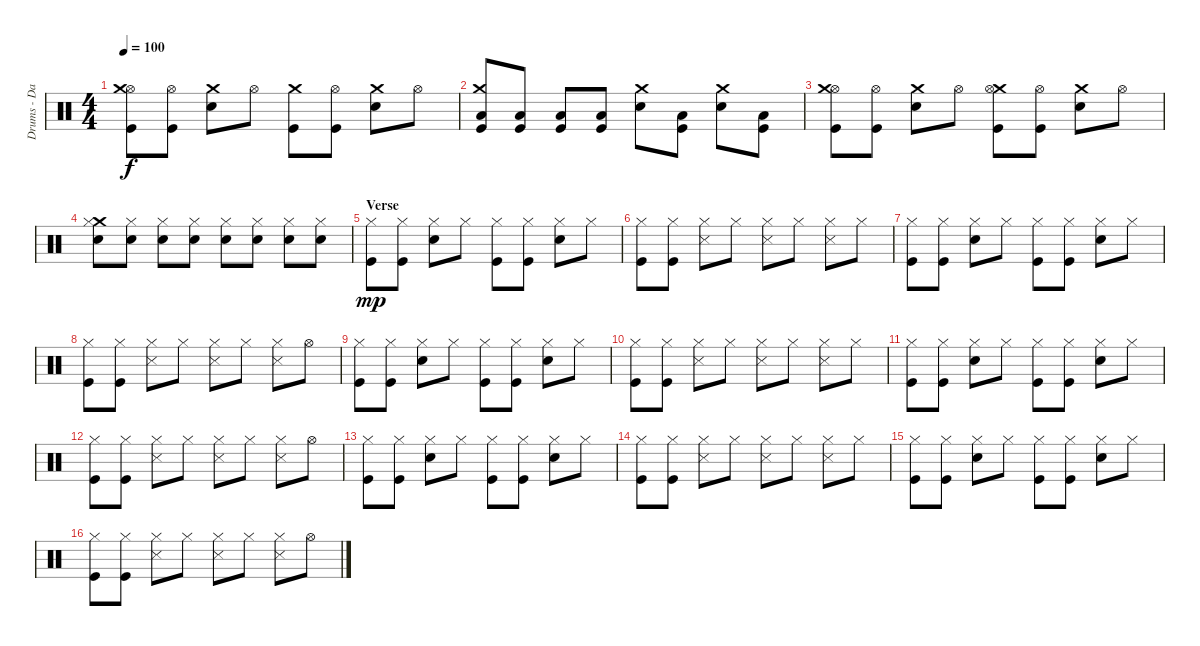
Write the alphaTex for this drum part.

\track ("Drums - Dave Grohl" "Drums - Da") {instrument percussion}
\staff {score}
\articulation defaults
\ts (4 4)
\tempo 100
\clef neutral
\ks c
("Kick (hit)" "Hi-Hat (open)" "Crash medium (hit)").8{dy f} ("Kick (hit)" "Hi-Hat (open)").8 ("Snare (hit) 2" "Crash medium (hit)").8 "Hi-Hat (open)".8 ("Kick (hit)" "Crash medium (hit)").8 ("Kick (hit)" "Hi-Hat (open)").8 ("Snare (hit) 2" "Crash medium (hit)").8 "Hi-Hat (open)".8 |
("Kick (hit)" "Low Tom (hit)" "Crash medium (hit)").8 ("Kick (hit)" "Low Tom (hit)").8 ("Kick (hit)" "Low Tom (hit)").8 ("Kick (hit)" "Low Tom (hit)").8 ("Snare (hit) 2" "Crash medium (hit)").8 ("Kick (hit)" "Low Tom (hit)").8 ("Snare (hit) 2" "Crash medium (hit)").8 ("Kick (hit)" "Low Tom (hit)").8 |
("Kick (hit)" "Hi-Hat (open)" "Crash medium (hit)").8 ("Kick (hit)" "Hi-Hat (open)").8 ("Snare (hit) 2" "Crash medium (hit)").8 "Hi-Hat (open)".8 ("Kick (hit)" "Crash medium (hit)" "Hi-Hat (open)").8 ("Kick (hit)" "Hi-Hat (open)").8 ("Snare (hit) 2" "Crash medium (hit)").8 "Hi-Hat (open)".8 |
("Snare (hit) 2" "Crash medium (hit)" "Hi-Hat (closed)").8 ("Snare (hit) 2" "Hi-Hat (closed)").8 ("Snare (hit) 2" "Hi-Hat (closed)").8 ("Snare (hit) 2" "Hi-Hat (closed)").8 ("Snare (hit) 2" "Hi-Hat (closed)").8 ("Snare (hit) 2" "Hi-Hat (closed)").8 ("Snare (hit) 2" "Hi-Hat (closed)").8 ("Snare (hit) 2" "Hi-Hat (closed)").8 |
\section ("" "Verse")
("Kick (hit)" "Hi-Hat (closed)").8{dy mp} ("Hi-Hat (closed)" "Kick (hit)").8 ("Hi-Hat (closed)" "Snare (hit) 2").8 "Hi-Hat (closed)".8 ("Kick (hit)" "Hi-Hat (closed)").8 ("Kick (hit)" "Hi-Hat (closed)").8 ("Snare (hit) 2" "Hi-Hat (closed)").8 "Hi-Hat (closed)".8 |
("Kick (hit)" "Hi-Hat (closed)").8 ("Kick (hit)" "Hi-Hat (closed)").8 ("Hi-Hat (closed)" "Snare (side stick) 3").8 "Hi-Hat (closed)".8 ("Hi-Hat (closed)" "Snare (side stick) 3").8 "Hi-Hat (closed)".8 ("Hi-Hat (closed)" "Snare (side stick) 3").8 "Hi-Hat (closed)".8 |
("Kick (hit)" "Hi-Hat (closed)").8 ("Hi-Hat (closed)" "Kick (hit)").8 ("Hi-Hat (closed)" "Snare (hit) 2").8 "Hi-Hat (closed)".8 ("Kick (hit)" "Hi-Hat (closed)").8 ("Kick (hit)" "Hi-Hat (closed)").8 ("Snare (hit) 2" "Hi-Hat (closed)").8 "Hi-Hat (closed)".8 |
("Kick (hit)" "Hi-Hat (closed)").8 ("Kick (hit)" "Hi-Hat (closed)").8 ("Hi-Hat (closed)" "Snare (side stick) 3").8 "Hi-Hat (closed)".8 ("Hi-Hat (closed)" "Snare (side stick) 3").8 "Hi-Hat (closed)".8 ("Hi-Hat (closed)" "Snare (side stick) 3").8 "Hi-Hat (open)".8 |
("Kick (hit)" "Hi-Hat (closed)").8 ("Hi-Hat (closed)" "Kick (hit)").8 ("Hi-Hat (closed)" "Snare (hit) 2").8 "Hi-Hat (closed)".8 ("Kick (hit)" "Hi-Hat (closed)").8 ("Kick (hit)" "Hi-Hat (closed)").8 ("Snare (hit) 2" "Hi-Hat (closed)").8 "Hi-Hat (closed)".8 |
("Kick (hit)" "Hi-Hat (closed)").8 ("Kick (hit)" "Hi-Hat (closed)").8 ("Hi-Hat (closed)" "Snare (side stick) 3").8 "Hi-Hat (closed)".8 ("Hi-Hat (closed)" "Snare (side stick) 3").8 "Hi-Hat (closed)".8 ("Hi-Hat (closed)" "Snare (side stick) 3").8 "Hi-Hat (closed)".8 |
("Kick (hit)" "Hi-Hat (closed)").8 ("Hi-Hat (closed)" "Kick (hit)").8 ("Hi-Hat (closed)" "Snare (hit) 2").8 "Hi-Hat (closed)".8 ("Kick (hit)" "Hi-Hat (closed)").8 ("Kick (hit)" "Hi-Hat (closed)").8 ("Snare (hit) 2" "Hi-Hat (closed)").8 "Hi-Hat (closed)".8 |
("Kick (hit)" "Hi-Hat (closed)").8 ("Kick (hit)" "Hi-Hat (closed)").8 ("Hi-Hat (closed)" "Snare (side stick) 3").8 "Hi-Hat (closed)".8 ("Hi-Hat (closed)" "Snare (side stick) 3").8 "Hi-Hat (closed)".8 ("Hi-Hat (closed)" "Snare (side stick) 3").8 "Hi-Hat (open)".8 |
("Kick (hit)" "Hi-Hat (closed)").8 ("Hi-Hat (closed)" "Kick (hit)").8 ("Hi-Hat (closed)" "Snare (hit) 2").8 "Hi-Hat (closed)".8 ("Kick (hit)" "Hi-Hat (closed)").8 ("Kick (hit)" "Hi-Hat (closed)").8 ("Snare (hit) 2" "Hi-Hat (closed)").8 "Hi-Hat (closed)".8 |
("Kick (hit)" "Hi-Hat (closed)").8 ("Kick (hit)" "Hi-Hat (closed)").8 ("Hi-Hat (closed)" "Snare (side stick) 3").8 "Hi-Hat (closed)".8 ("Hi-Hat (closed)" "Snare (side stick) 3").8 "Hi-Hat (closed)".8 ("Hi-Hat (closed)" "Snare (side stick) 3").8 "Hi-Hat (closed)".8 |
("Kick (hit)" "Hi-Hat (closed)").8 ("Hi-Hat (closed)" "Kick (hit)").8 ("Hi-Hat (closed)" "Snare (hit) 2").8 "Hi-Hat (closed)".8 ("Kick (hit)" "Hi-Hat (closed)").8 ("Kick (hit)" "Hi-Hat (closed)").8 ("Snare (hit) 2" "Hi-Hat (closed)").8 "Hi-Hat (closed)".8 |
("Kick (hit)" "Hi-Hat (closed)").8 ("Kick (hit)" "Hi-Hat (closed)").8 ("Hi-Hat (closed)" "Snare (side stick) 3").8 "Hi-Hat (closed)".8 ("Hi-Hat (closed)" "Snare (side stick) 3").8 "Hi-Hat (closed)".8 ("Hi-Hat (closed)" "Snare (side stick) 3").8 "Hi-Hat (open)".8
